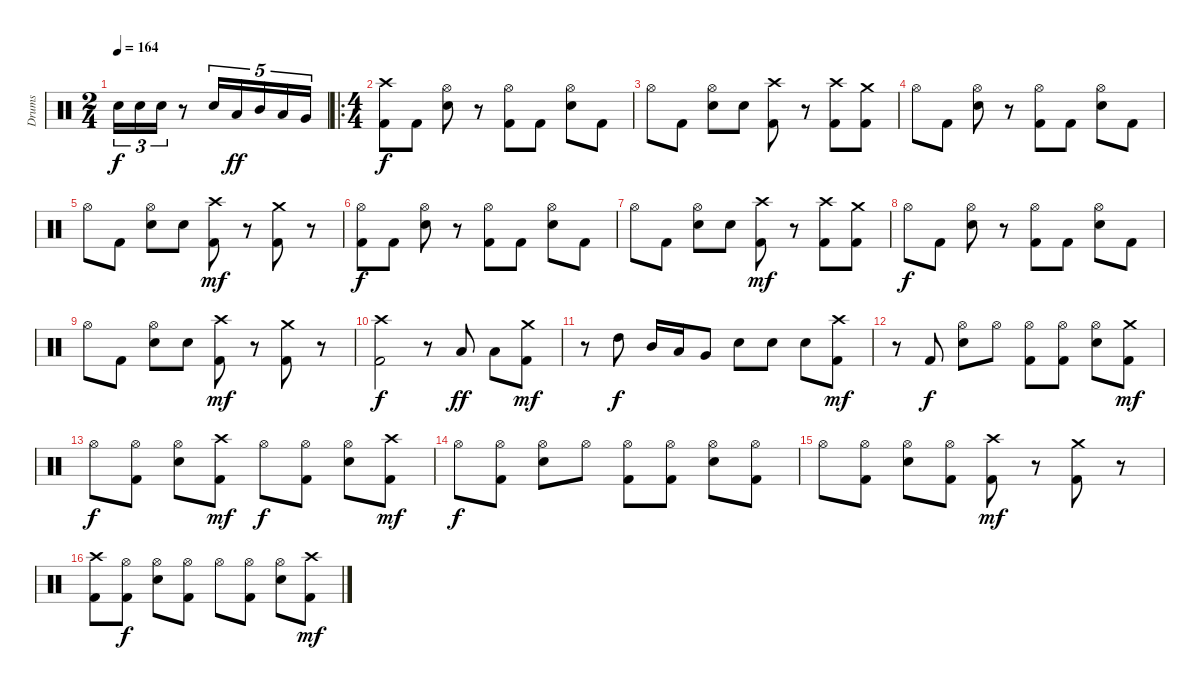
\track ("Drums" "Drums") {instrument percussion}
\staff {score}
\articulation defaults
\ts (2 4)
\tempo 164
\clef neutral
\ks c "Snare (hit) 2".16{tu (3 2) dy f} "Snare (hit) 2".16{tu (3 2)} "Snare (hit) 2".16{tu (3 2)}
r.8 "Snare (hit) 2".16{tu (5 4)} "Low Tom (hit)".16{tu (5 4) dy ff} "Mid Tom (hit)".16{tu (5 4)} "Low Tom (hit)".16{tu (5 4)} "Very Low Tom (hit)".16{tu (5 4)} |
\ro
\ts (4 4)
("Crash high (hit)" "Kick (hit) 2").8{dy f} "Kick (hit) 2".8 ("Hi-Hat (open)" "Snare (hit) 2").8 r.8 ("Hi-Hat (open)" "Kick (hit) 2").8 "Kick (hit) 2".8 ("Hi-Hat (open)" "Snare (hit) 2").8 "Kick (hit) 2".8 |
"Hi-Hat (open)".8 "Kick (hit) 2".8 ("Hi-Hat (open)" "Snare (hit) 2").8 "Snare (hit) 2".8 ("Crash high (hit)" "Kick (hit) 2").8 r.8 ("Crash high (hit)" "Kick (hit) 2").8 ("Crash medium (hit)" "Kick (hit) 2").8 |
"Hi-Hat (open)".8 "Kick (hit) 2".8 ("Hi-Hat (open)" "Snare (hit) 2").8 r.8 ("Hi-Hat (open)" "Kick (hit) 2").8 "Kick (hit) 2".8 ("Hi-Hat (open)" "Snare (hit) 2").8 "Kick (hit) 2".8 |
"Hi-Hat (open)".8 "Kick (hit) 2".8 ("Hi-Hat (open)" "Snare (hit) 2").8 "Snare (hit) 2".8 ("Crash high (hit)" "Kick (hit) 2").8{dy mf} r.8 ("Crash medium (hit)" "Kick (hit) 2").8 r.8 |
("Hi-Hat (open)" "Kick (hit) 2").8{dy f} "Kick (hit) 2".8 ("Hi-Hat (open)" "Snare (hit) 2").8 r.8 ("Hi-Hat (open)" "Kick (hit) 2").8 "Kick (hit) 2".8 ("Hi-Hat (open)" "Snare (hit) 2").8 "Kick (hit) 2".8 |
"Hi-Hat (open)".8 "Kick (hit) 2".8 ("Hi-Hat (open)" "Snare (hit) 2").8 "Snare (hit) 2".8 ("Crash high (hit)" "Kick (hit) 2").8{dy mf} r.8 ("Crash high (hit)" "Kick (hit) 2").8 ("Crash medium (hit)" "Kick (hit) 2").8 |
"Hi-Hat (open)".8{dy f} "Kick (hit) 2".8 ("Hi-Hat (open)" "Snare (hit) 2").8 r.8 ("Hi-Hat (open)" "Kick (hit) 2").8 "Kick (hit) 2".8 ("Hi-Hat (open)" "Snare (hit) 2").8 "Kick (hit) 2".8 |
"Hi-Hat (open)".8 "Kick (hit) 2".8 ("Hi-Hat (open)" "Snare (hit) 2").8 "Snare (hit) 2".8 ("Crash high (hit)" "Kick (hit) 2").8{dy mf} r.8 ("Crash medium (hit)" "Kick (hit) 2").8 r.8 |
("Crash high (hit)" "Kick (hit) 2").2{dy f} r.8 "Low Tom (hit)".8{dy ff} "Low Tom (hit)".8 ("Crash medium (hit)" "Kick (hit) 2").8{dy mf} |
r.8 "High Tom (hit)".8{dy f} "Mid Tom (hit)".16 "Low Tom (hit)".16 "Very Low Tom (hit)".8 "Snare (hit) 2".8 "Snare (hit) 2".8 "Snare (hit) 2".8 ("Crash high (hit)" "Kick (hit) 2").8{dy mf} |
r.8 "Kick (hit) 2".8{dy f} ("Hi-Hat (open)" "Snare (hit) 2").8 "Hi-Hat (open)".8 ("Hi-Hat (open)" "Kick (hit) 2").8 ("Hi-Hat (open)" "Kick (hit) 2").8 ("Hi-Hat (open)" "Snare (hit) 2").8 ("Crash medium (hit)" "Kick (hit) 2").8{dy mf} |
"Hi-Hat (open)".8{dy f} ("Hi-Hat (open)" "Kick (hit) 2").8 ("Hi-Hat (open)" "Snare (hit) 2").8 ("Crash high (hit)" "Kick (hit) 2").8{dy mf} "Hi-Hat (open)".8{dy f} ("Hi-Hat (open)" "Kick (hit) 2").8 ("Hi-Hat (open)" "Snare (hit) 2").8 ("Crash high (hit)" "Kick (hit) 2").8{dy mf} |
"Hi-Hat (open)".8{dy f} ("Hi-Hat (open)" "Kick (hit) 2").8 ("Hi-Hat (open)" "Snare (hit) 2").8 "Hi-Hat (open)".8 ("Hi-Hat (open)" "Kick (hit) 2").8 ("Hi-Hat (open)" "Kick (hit) 2").8 ("Hi-Hat (open)" "Snare (hit) 2").8 ("Hi-Hat (open)" "Kick (hit) 2").8 |
"Hi-Hat (open)".8 ("Hi-Hat (open)" "Kick (hit) 2").8 ("Hi-Hat (open)" "Snare (hit) 2").8 ("Hi-Hat (open)" "Kick (hit) 2").8 ("Crash high (hit)" "Kick (hit) 2").8{dy mf} r.8 ("Crash medium (hit)" "Kick (hit) 2").8 r.8 |
("Crash high (hit)" "Kick (hit) 2").8 ("Hi-Hat (open)" "Kick (hit) 2").8{dy f} ("Hi-Hat (open)" "Snare (hit) 2").8 ("Hi-Hat (open)" "Kick (hit) 2").8 "Hi-Hat (open)".8 ("Hi-Hat (open)" "Kick (hit) 2").8 ("Hi-Hat (open)" "Snare (hit) 2").8 ("Crash high (hit)" "Kick (hit) 2").8{dy mf}
